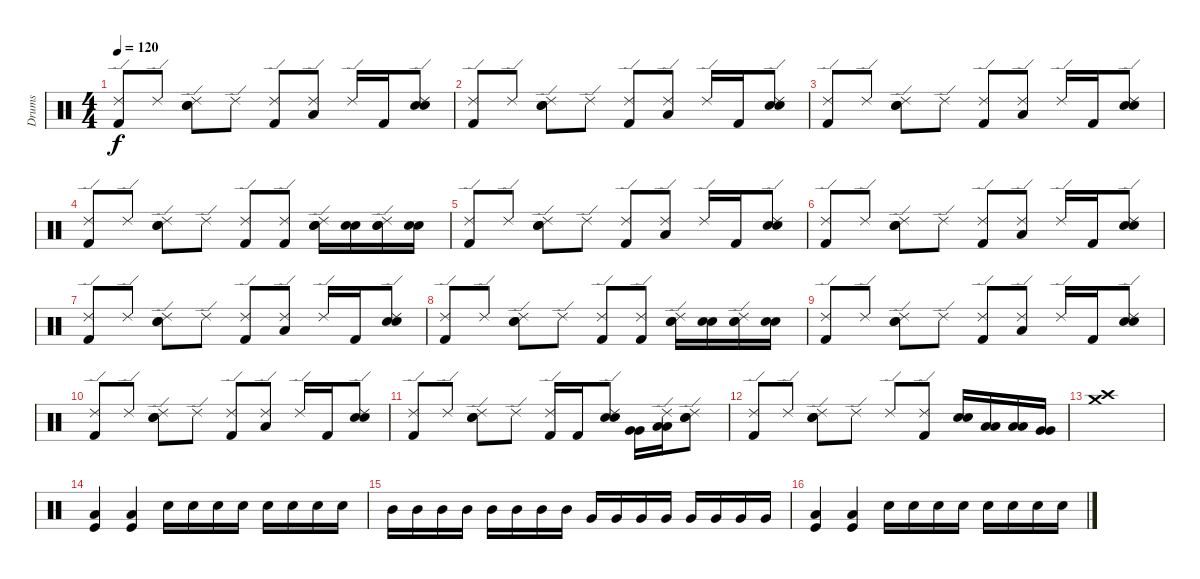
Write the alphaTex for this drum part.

\track ("Drums" "Drums") {instrument percussion}
\staff {score}
\articulation defaults
\ts (4 4)
\tempo 120
\clef neutral
\ks c
("Ride (edge) 2" "Kick (hit) 2").8{dy f} "Ride (edge) 2".8 ("Ride (edge) 2" "Snare (hit) 2" "Snare (hit) 2").8 "Ride (edge) 2".8 ("Ride (edge) 2" "Kick (hit) 2").8 ("Ride (edge) 2" "Low Tom (hit)").8 "Ride (edge) 2".16 "Kick (hit) 2".16 ("Ride (edge) 2" "Snare (hit) 2" "Snare (hit) 2").8 |
("Ride (edge) 2" "Kick (hit) 2").8 "Ride (edge) 2".8 ("Ride (edge) 2" "Snare (hit) 2" "Snare (hit) 2").8 "Ride (edge) 2".8 ("Ride (edge) 2" "Kick (hit) 2").8 ("Ride (edge) 2" "Low Tom (hit)").8 "Ride (edge) 2".16 "Kick (hit) 2".16 ("Ride (edge) 2" "Snare (hit) 2" "Snare (hit) 2").8 |
("Ride (edge) 2" "Kick (hit) 2").8 "Ride (edge) 2".8 ("Ride (edge) 2" "Snare (hit) 2" "Snare (hit) 2").8 "Ride (edge) 2".8 ("Ride (edge) 2" "Kick (hit) 2").8 ("Ride (edge) 2" "Low Tom (hit)").8 "Ride (edge) 2".16 "Kick (hit) 2".16 ("Ride (edge) 2" "Snare (hit) 2" "Snare (hit) 2").8 |
("Ride (edge) 2" "Kick (hit) 2").8 "Ride (edge) 2".8 ("Ride (edge) 2" "Snare (hit) 2" "Snare (hit) 2").8 "Ride (edge) 2".8 ("Ride (edge) 2" "Kick (hit) 2").8 ("Ride (edge) 2" "Kick (hit) 2").8 ("Ride (edge) 2" "Snare (hit) 2" "Snare (hit) 2").16 ("Snare (hit) 2" "Snare (hit) 2").16 ("Ride (edge) 2" "Snare (hit) 2" "Snare (hit) 2").16 ("Snare (hit) 2" "Snare (hit) 2").16 |
("Ride (edge) 2" "Kick (hit) 2").8 "Ride (edge) 2".8 ("Ride (edge) 2" "Snare (hit) 2" "Snare (hit) 2").8 "Ride (edge) 2".8 ("Ride (edge) 2" "Kick (hit) 2").8 ("Ride (edge) 2" "Low Tom (hit)").8 "Ride (edge) 2".16 "Kick (hit) 2".16 ("Ride (edge) 2" "Snare (hit) 2" "Snare (hit) 2").8 |
("Ride (edge) 2" "Kick (hit) 2").8 "Ride (edge) 2".8 ("Ride (edge) 2" "Snare (hit) 2" "Snare (hit) 2").8 "Ride (edge) 2".8 ("Ride (edge) 2" "Kick (hit) 2").8 ("Ride (edge) 2" "Low Tom (hit)").8 "Ride (edge) 2".16 "Kick (hit) 2".16 ("Ride (edge) 2" "Snare (hit) 2" "Snare (hit) 2").8 |
("Ride (edge) 2" "Kick (hit) 2").8 "Ride (edge) 2".8 ("Ride (edge) 2" "Snare (hit) 2" "Snare (hit) 2").8 "Ride (edge) 2".8 ("Ride (edge) 2" "Kick (hit) 2").8 ("Ride (edge) 2" "Low Tom (hit)").8 "Ride (edge) 2".16 "Kick (hit) 2".16 ("Ride (edge) 2" "Snare (hit) 2" "Snare (hit) 2").8 |
("Ride (edge) 2" "Kick (hit) 2").8 "Ride (edge) 2".8 ("Ride (edge) 2" "Snare (hit) 2" "Snare (hit) 2").8 "Ride (edge) 2".8 ("Ride (edge) 2" "Kick (hit) 2").8 ("Ride (edge) 2" "Kick (hit) 2").8 ("Ride (edge) 2" "Snare (hit) 2" "Snare (hit) 2").16 ("Snare (hit) 2" "Snare (hit) 2").16 ("Ride (edge) 2" "Snare (hit) 2" "Snare (hit) 2").16 ("Snare (hit) 2" "Snare (hit) 2").16 |
("Ride (edge) 2" "Kick (hit) 2").8 "Ride (edge) 2".8 ("Ride (edge) 2" "Snare (hit) 2" "Snare (hit) 2").8 "Ride (edge) 2".8 ("Ride (edge) 2" "Kick (hit) 2").8 ("Ride (edge) 2" "Low Tom (hit)").8 "Ride (edge) 2".16 "Kick (hit) 2".16 ("Ride (edge) 2" "Snare (hit) 2" "Snare (hit) 2").8 |
("Ride (edge) 2" "Kick (hit) 2").8 "Ride (edge) 2".8 ("Ride (edge) 2" "Snare (hit) 2" "Snare (hit) 2").8 "Ride (edge) 2".8 ("Ride (edge) 2" "Kick (hit) 2").8 ("Ride (edge) 2" "Low Tom (hit)").8 "Ride (edge) 2".16 "Kick (hit) 2".16 ("Ride (edge) 2" "Snare (hit) 2" "Snare (hit) 2").8 |
("Ride (edge) 2" "Kick (hit) 2").8 "Ride (edge) 2".8 ("Ride (edge) 2" "Snare (hit) 2" "Snare (hit) 2").8 "Ride (edge) 2".8 ("Ride (edge) 2" "Kick (hit) 2").16 "Kick (hit) 2".16 ("Ride (edge) 2" "Snare (hit) 2" "Snare (hit) 2").8 ("Very Low Tom (hit)" "Very Low Tom (hit)").16 ("Ride (edge) 2" "Low Tom (hit)" "Low Tom (hit)").16 ("Ride (edge) 2" "Snare (hit) 2" "Snare (hit) 2").8 |
("Ride (edge) 2" "Kick (hit) 2").8 "Ride (edge) 2".8 ("Ride (edge) 2" "Snare (hit) 2" "Snare (hit) 2").8 "Ride (edge) 2".8 "Ride (edge) 2".8 ("Ride (edge) 2" "Kick (hit) 2").8 ("Snare (hit) 2" "Snare (hit) 2").16 ("Low Tom (hit)" "Low Tom (hit)").16 ("Low Tom (hit)" "Low Tom (hit)").16 ("Very Low Tom (hit)" "Very Low Tom (hit)").16 |
("Crash high (hit)" "Crash medium (hit)").1 |
("Kick (hit)" "Low Floor Tom (hit)").4 ("Kick (hit)" "Low Floor Tom (hit)").4 "Electric Snare (hit)".16 "Electric Snare (hit)".16 "Electric Snare (hit)".16 "Electric Snare (hit)".16 "Electric Snare (hit)".16 "Electric Snare (hit)".16 "Electric Snare (hit)".16 "Electric Snare (hit)".16 |
"Mid Tom (hit)".16 "Mid Tom (hit)".16 "Mid Tom (hit)".16 "Mid Tom (hit)".16 "Mid Tom (hit)".16 "Mid Tom (hit)".16 "Mid Tom (hit)".16 "Mid Tom (hit)".16 "Very Low Tom (hit)".16 "Very Low Tom (hit)".16 "Very Low Tom (hit)".16 "Very Low Tom (hit)".16 "Very Low Tom (hit)".16 "Very Low Tom (hit)".16 "Very Low Tom (hit)".16 "Very Low Tom (hit)".16 |
("Kick (hit)" "Low Floor Tom (hit)").4 ("Kick (hit)" "Low Floor Tom (hit)").4 "Electric Snare (hit)".16 "Electric Snare (hit)".16 "Electric Snare (hit)".16 "Electric Snare (hit)".16 "Electric Snare (hit)".16 "Electric Snare (hit)".16 "Electric Snare (hit)".16 "Electric Snare (hit)".16
